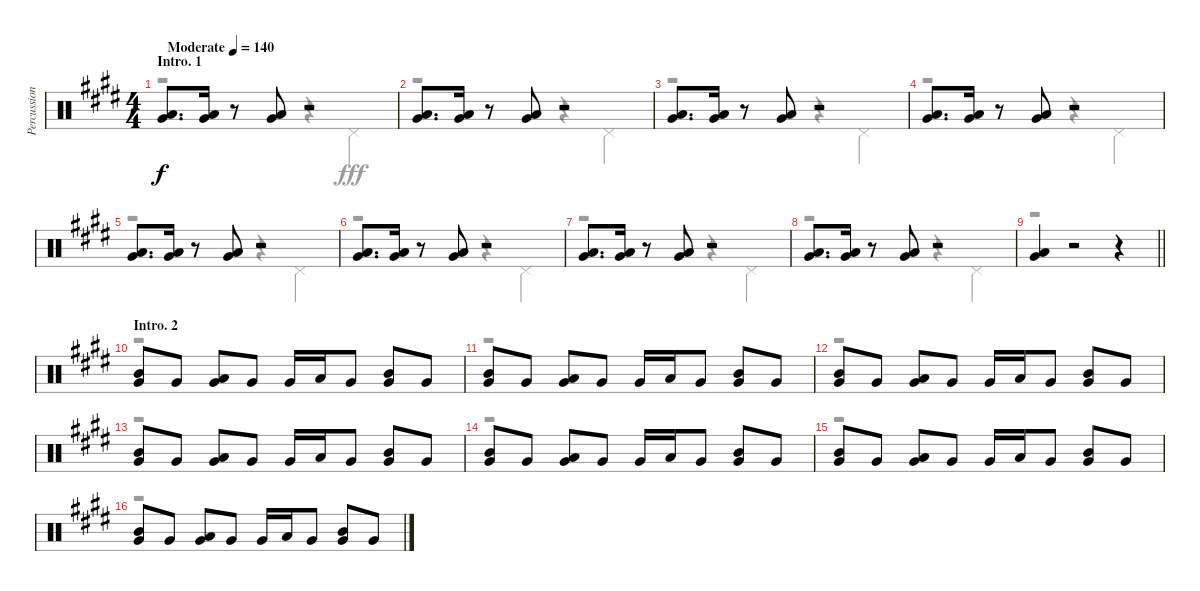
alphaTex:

\track ("Percussion" "Percussion") {instrument percussion}
\staff {score}
\articulation defaults
\voice
\ts (4 4)
\section ("" "Intro. 1")
\tempo (140 "Moderate")
\clef neutral
\ks e
("Low Tom (hit)" "Very Low Tom (hit)").8{d dy f} ("Low Tom (hit)" "Very Low Tom (hit)").16 r.8 ("Low Tom (hit)" "Very Low Tom (hit)").8 r.2 |
("Low Tom (hit)" "Very Low Tom (hit)").8{d} ("Low Tom (hit)" "Very Low Tom (hit)").16 r.8 ("Low Tom (hit)" "Very Low Tom (hit)").8 r.2 |
("Low Tom (hit)" "Very Low Tom (hit)").8{d} ("Low Tom (hit)" "Very Low Tom (hit)").16 r.8 ("Low Tom (hit)" "Very Low Tom (hit)").8 r.2 |
("Low Tom (hit)" "Very Low Tom (hit)").8{d} ("Low Tom (hit)" "Very Low Tom (hit)").16 r.8 ("Low Tom (hit)" "Very Low Tom (hit)").8 r.2 |
("Low Tom (hit)" "Very Low Tom (hit)").8{d} ("Low Tom (hit)" "Very Low Tom (hit)").16 r.8 ("Low Tom (hit)" "Very Low Tom (hit)").8 r.2 |
("Low Tom (hit)" "Very Low Tom (hit)").8{d} ("Low Tom (hit)" "Very Low Tom (hit)").16 r.8 ("Low Tom (hit)" "Very Low Tom (hit)").8 r.2 |
("Low Tom (hit)" "Very Low Tom (hit)").8{d} ("Low Tom (hit)" "Very Low Tom (hit)").16 r.8 ("Low Tom (hit)" "Very Low Tom (hit)").8 r.2 |
("Low Tom (hit)" "Very Low Tom (hit)").8{d} ("Low Tom (hit)" "Very Low Tom (hit)").16 r.8 ("Low Tom (hit)" "Very Low Tom (hit)").8 r.2 |
\barLineRight lightlight
("Low Tom (hit)" "Very Low Tom (hit)").4 r.2 r.4 |
\section ("" "Intro. 2")
("Mid Tom (hit)" "Very Low Tom (hit)").8 "Very Low Tom (hit)".8 ("Low Tom (hit)" "Very Low Tom (hit)").8 "Very Low Tom (hit)".8 "Very Low Tom (hit)".16 "Low Tom (hit)".16 "Very Low Tom (hit)".8 ("Mid Tom (hit)" "Very Low Tom (hit)").8 "Very Low Tom (hit)".8 |
("Mid Tom (hit)" "Very Low Tom (hit)").8 "Very Low Tom (hit)".8 ("Low Tom (hit)" "Very Low Tom (hit)").8 "Very Low Tom (hit)".8 "Very Low Tom (hit)".16 "Low Tom (hit)".16 "Very Low Tom (hit)".8 ("Mid Tom (hit)" "Very Low Tom (hit)").8 "Very Low Tom (hit)".8 |
("Mid Tom (hit)" "Very Low Tom (hit)").8 "Very Low Tom (hit)".8 ("Low Tom (hit)" "Very Low Tom (hit)").8 "Very Low Tom (hit)".8 "Very Low Tom (hit)".16 "Low Tom (hit)".16 "Very Low Tom (hit)".8 ("Mid Tom (hit)" "Very Low Tom (hit)").8 "Very Low Tom (hit)".8 |
("Mid Tom (hit)" "Very Low Tom (hit)").8 "Very Low Tom (hit)".8 ("Low Tom (hit)" "Very Low Tom (hit)").8 "Very Low Tom (hit)".8 "Very Low Tom (hit)".16 "Low Tom (hit)".16 "Very Low Tom (hit)".8 ("Mid Tom (hit)" "Very Low Tom (hit)").8 "Very Low Tom (hit)".8 |
("Mid Tom (hit)" "Very Low Tom (hit)").8 "Very Low Tom (hit)".8 ("Low Tom (hit)" "Very Low Tom (hit)").8 "Very Low Tom (hit)".8 "Very Low Tom (hit)".16 "Low Tom (hit)".16 "Very Low Tom (hit)".8 ("Mid Tom (hit)" "Very Low Tom (hit)").8 "Very Low Tom (hit)".8 |
("Mid Tom (hit)" "Very Low Tom (hit)").8 "Very Low Tom (hit)".8 ("Low Tom (hit)" "Very Low Tom (hit)").8 "Very Low Tom (hit)".8 "Very Low Tom (hit)".16 "Low Tom (hit)".16 "Very Low Tom (hit)".8 ("Mid Tom (hit)" "Very Low Tom (hit)").8 "Very Low Tom (hit)".8 |
("Mid Tom (hit)" "Very Low Tom (hit)").8 "Very Low Tom (hit)".8 ("Low Tom (hit)" "Very Low Tom (hit)").8 "Very Low Tom (hit)".8 "Very Low Tom (hit)".16 "Low Tom (hit)".16 "Very Low Tom (hit)".8 ("Mid Tom (hit)" "Very Low Tom (hit)").8 "Very Low Tom (hit)".8
\voice
\clef neutral
\ottava regular
\simile none
\ks e
r.2{dy fff} r.4 "Pedal Hi-Hat (hit)".4 |
r.2 r.4 "Pedal Hi-Hat (hit)".4 |
r.2 r.4 "Pedal Hi-Hat (hit)".4 |
r.2 r.4 "Pedal Hi-Hat (hit)".4 |
r.2 r.4 "Pedal Hi-Hat (hit)".4 |
r.2 r.4 "Pedal Hi-Hat (hit)".4 |
r.2 r.4 "Pedal Hi-Hat (hit)".4 |
r.2 r.4 "Pedal Hi-Hat (hit)".4 |
\barLineRight lightlight
r.1 |
r.1 |
r.1 |
r.1 |
r.1 |
r.1 |
r.1 |
r.1
